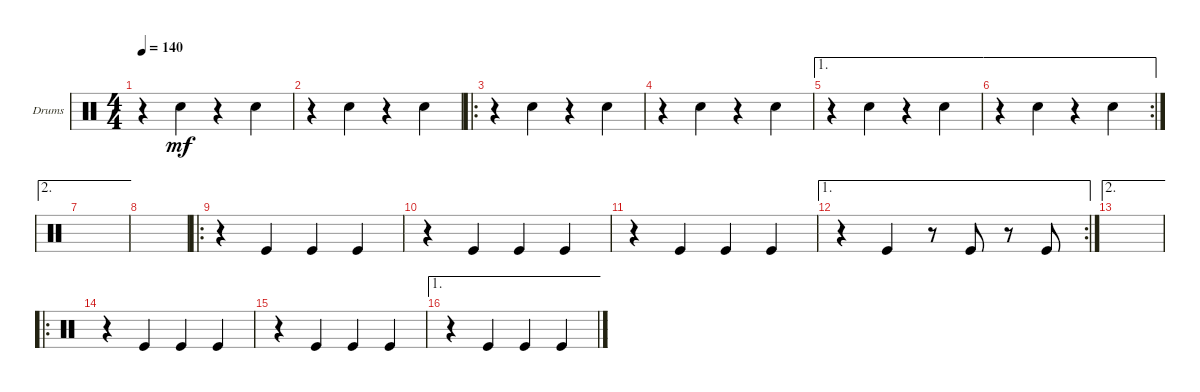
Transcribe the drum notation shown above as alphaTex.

\defaultSystemsLayout 4
\bracketExtendMode groupsimilarinstruments
\firstSystemTrackNameOrientation horizontal
\otherSystemsTrackNameOrientation horizontal
\track ("Drumkit" "Drums") {instrument percussion}
\staff {score}
\articulation defaults
\ts (4 4)
\tempo 140
\clef neutral
\scale
0.5
\ks c
r.4{dy mf} "Snare (hit) 2".4 r.4 "Snare (hit) 2".4 |
\scale
0.5 r.4 "Snare (hit) 2".4 r.4 "Snare (hit) 2".4 |
\ro
\scale
0.547619 r.4 "Snare (hit) 2".4 r.4 "Snare (hit) 2".4 |
\scale
0.452381 r.4 "Snare (hit) 2".4 r.4 "Snare (hit) 2".4 |
\ae 1
\scale
0.475 r.4 "Snare (hit) 2".4 r.4 "Snare (hit) 2".4 |
\ae 1
\rc 2
\scale
0.525 r.4 "Snare (hit) 2".4 r.4 "Snare (hit) 2".4 |
\ae 2
\scale
0.5 |
\scale
0.5 |
\ro
\scale
0.547619 r.4 "Kick (hit)".4 "Kick (hit)".4 "Kick (hit)".4 |
\scale
0.452381 r.4 "Kick (hit)".4 "Kick (hit)".4 "Kick (hit)".4 |
\scale
0.475 r.4 "Kick (hit)".4 "Kick (hit)".4 "Kick (hit)".4 |
\ae 1
\rc 2
\scale
0.525 r.4 "Kick (hit)".4 r.8 "Kick (hit)".8 r.8 "Kick (hit)".8 |
\ae 2
\scale
0.452381 |
\ro
\scale
0.547619 r.4 "Kick (hit)".4 "Kick (hit)".4 "Kick (hit)".4 |
\scale
0.5 r.4 "Kick (hit)".4 "Kick (hit)".4 "Kick (hit)".4 |
\ae 1
\scale
0.5 r.4 "Kick (hit)".4 "Kick (hit)".4 "Kick (hit)".4
